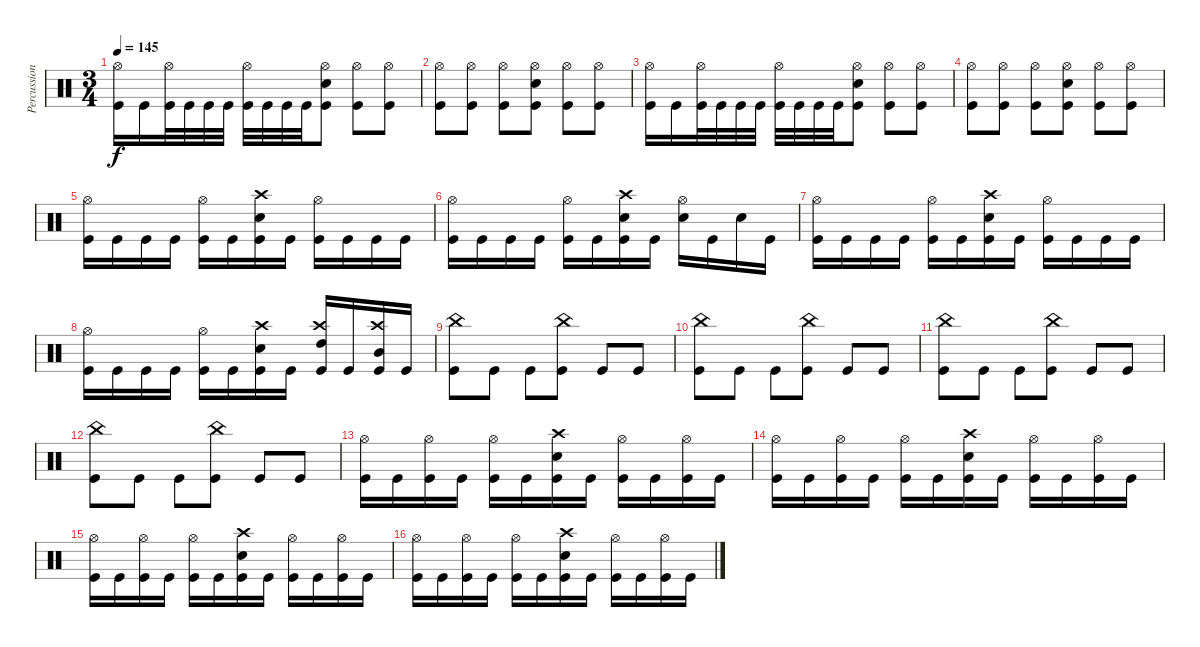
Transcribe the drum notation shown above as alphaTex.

\track ("Percussion" "Percussion") {instrument percussion}
\staff {score}
\articulation defaults
\ts (3 4)
\tempo 145
\clef neutral
\ks c
("Hi-Hat (open)" "Kick (hit)").16{dy f} "Kick (hit)".16 ("Hi-Hat (open)" "Kick (hit)").32 "Kick (hit)".32 "Kick (hit)".32 "Kick (hit)".32 ("Hi-Hat (open)" "Kick (hit)").32 "Kick (hit)".32 "Kick (hit)".32 "Kick (hit)".32 ("Hi-Hat (open)" "Snare (hit) 2" "Kick (hit)").8 ("Hi-Hat (open)" "Kick (hit)").8 ("Hi-Hat (open)" "Kick (hit)").8 |
("Hi-Hat (open)" "Kick (hit)").8 ("Hi-Hat (open)" "Kick (hit)").8 ("Hi-Hat (open)" "Kick (hit)").8 ("Hi-Hat (open)" "Snare (hit) 2" "Kick (hit)").8 ("Hi-Hat (open)" "Kick (hit)").8 ("Hi-Hat (open)" "Kick (hit)").8 |
("Hi-Hat (open)" "Kick (hit)").16 "Kick (hit)".16 ("Hi-Hat (open)" "Kick (hit)").32 "Kick (hit)".32 "Kick (hit)".32 "Kick (hit)".32 ("Hi-Hat (open)" "Kick (hit)").32 "Kick (hit)".32 "Kick (hit)".32 "Kick (hit)".32 ("Hi-Hat (open)" "Snare (hit) 2" "Kick (hit)").8 ("Hi-Hat (open)" "Kick (hit)").8 ("Hi-Hat (open)" "Kick (hit)").8 |
("Hi-Hat (open)" "Kick (hit)").8 ("Hi-Hat (open)" "Kick (hit)").8 ("Hi-Hat (open)" "Kick (hit)").8 ("Hi-Hat (open)" "Snare (hit) 2" "Kick (hit)").8 ("Hi-Hat (open)" "Kick (hit)").8 ("Hi-Hat (open)" "Kick (hit)").8 |
("Hi-Hat (open)" "Kick (hit)").16 "Kick (hit)".16 "Kick (hit)".16 "Kick (hit)".16 ("Hi-Hat (open)" "Kick (hit)").16 "Kick (hit)".16 ("Crash high (hit)" "Snare (hit) 2" "Kick (hit)").16 "Kick (hit)".16 ("Hi-Hat (open)" "Kick (hit)").16 "Kick (hit)".16 "Kick (hit)".16 "Kick (hit)".16 |
("Hi-Hat (open)" "Kick (hit)").16 "Kick (hit)".16 "Kick (hit)".16 "Kick (hit)".16 ("Hi-Hat (open)" "Kick (hit)").16 "Kick (hit)".16 ("Crash high (hit)" "Snare (hit) 2" "Kick (hit)").16 "Kick (hit)".16 ("Hi-Hat (open)" "Electric Snare (hit)").16 "Kick (hit)".16 "Electric Snare (hit)".16 "Kick (hit)".16 |
("Hi-Hat (open)" "Kick (hit)").16 "Kick (hit)".16 "Kick (hit)".16 "Kick (hit)".16 ("Hi-Hat (open)" "Kick (hit)").16 "Kick (hit)".16 ("Crash high (hit)" "Snare (hit) 2" "Kick (hit)").16 "Kick (hit)".16 ("Hi-Hat (open)" "Kick (hit)").16 "Kick (hit)".16 "Kick (hit)".16 "Kick (hit)".16 |
("Hi-Hat (open)" "Kick (hit)").16 "Kick (hit)".16 "Kick (hit)".16 "Kick (hit)".16 ("Hi-Hat (open)" "Kick (hit)").16 "Kick (hit)".16 ("Crash high (hit)" "Snare (hit) 2" "Kick (hit)").16 "Kick (hit)".16 ("Crash high (hit)" "High Tom (hit)" "Kick (hit)").16 "Kick (hit)".16 ("Crash high (hit)" "Mid Tom (hit)" "Kick (hit)").16 "Kick (hit)".16 |
("China (hit)" "Kick (hit)").8 "Kick (hit)".8 "Kick (hit)".8 ("China (hit)" "Kick (hit)").8 "Kick (hit)".8 "Kick (hit)".8 |
("China (hit)" "Kick (hit)").8 "Kick (hit)".8 "Kick (hit)".8 ("China (hit)" "Kick (hit)").8 "Kick (hit)".8 "Kick (hit)".8 |
("China (hit)" "Kick (hit)").8 "Kick (hit)".8 "Kick (hit)".8 ("China (hit)" "Kick (hit)").8 "Kick (hit)".8 "Kick (hit)".8 |
("China (hit)" "Kick (hit)").8 "Kick (hit)".8 "Kick (hit)".8 ("China (hit)" "Kick (hit)").8 "Kick (hit)".8 "Kick (hit)".8 |
("Hi-Hat (open)" "Kick (hit)").16 "Kick (hit)".16 ("Hi-Hat (open)" "Kick (hit)").16 "Kick (hit)".16 ("Hi-Hat (open)" "Kick (hit)").16 "Kick (hit)".16 ("Crash high (hit)" "Snare (hit) 2" "Kick (hit)").16 "Kick (hit)".16 ("Hi-Hat (open)" "Kick (hit)").16 "Kick (hit)".16 ("Hi-Hat (open)" "Kick (hit)").16 "Kick (hit)".16 |
("Hi-Hat (open)" "Kick (hit)").16 "Kick (hit)".16 ("Hi-Hat (open)" "Kick (hit)").16 "Kick (hit)".16 ("Hi-Hat (open)" "Kick (hit)").16 "Kick (hit)".16 ("Crash high (hit)" "Snare (hit) 2" "Kick (hit)").16 "Kick (hit)".16 ("Hi-Hat (open)" "Kick (hit)").16 "Kick (hit)".16 ("Hi-Hat (open)" "Kick (hit)").16 "Kick (hit)".16 |
("Hi-Hat (open)" "Kick (hit)").16 "Kick (hit)".16 ("Hi-Hat (open)" "Kick (hit)").16 "Kick (hit)".16 ("Hi-Hat (open)" "Kick (hit)").16 "Kick (hit)".16 ("Crash high (hit)" "Snare (hit) 2" "Kick (hit)").16 "Kick (hit)".16 ("Hi-Hat (open)" "Kick (hit)").16 "Kick (hit)".16 ("Hi-Hat (open)" "Kick (hit)").16 "Kick (hit)".16 |
("Hi-Hat (open)" "Kick (hit)").16 "Kick (hit)".16 ("Hi-Hat (open)" "Kick (hit)").16 "Kick (hit)".16 ("Hi-Hat (open)" "Kick (hit)").16 "Kick (hit)".16 ("Crash high (hit)" "Snare (hit) 2" "Kick (hit)").16 "Kick (hit)".16 ("Hi-Hat (open)" "Kick (hit)").16 "Kick (hit)".16 ("Hi-Hat (open)" "Kick (hit)").16 "Kick (hit)".16
